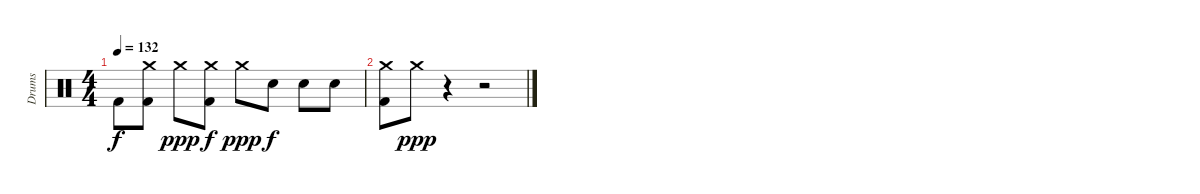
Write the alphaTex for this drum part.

\track ("Drums" "Drums") {instrument percussion}
\staff
\articulation defaults
\ts (4 4)
\tempo 132
\clef neutral
\ks c "Kick (hit) 2".8{dy f}
("Crash medium (hit)" "Kick (hit) 2").8 "Crash medium (hit)".8{dy ppp} ("Crash medium (hit)" "Kick (hit) 2").8{dy f} "Crash medium (hit)".8{dy ppp} "Snare (hit) 2".8{dy f} "Snare (hit) 2".8 "Snare (hit) 2".8 |
("Crash medium (hit)" "Kick (hit) 2").8 "Crash medium (hit)".8{dy ppp} r.4 r.2
